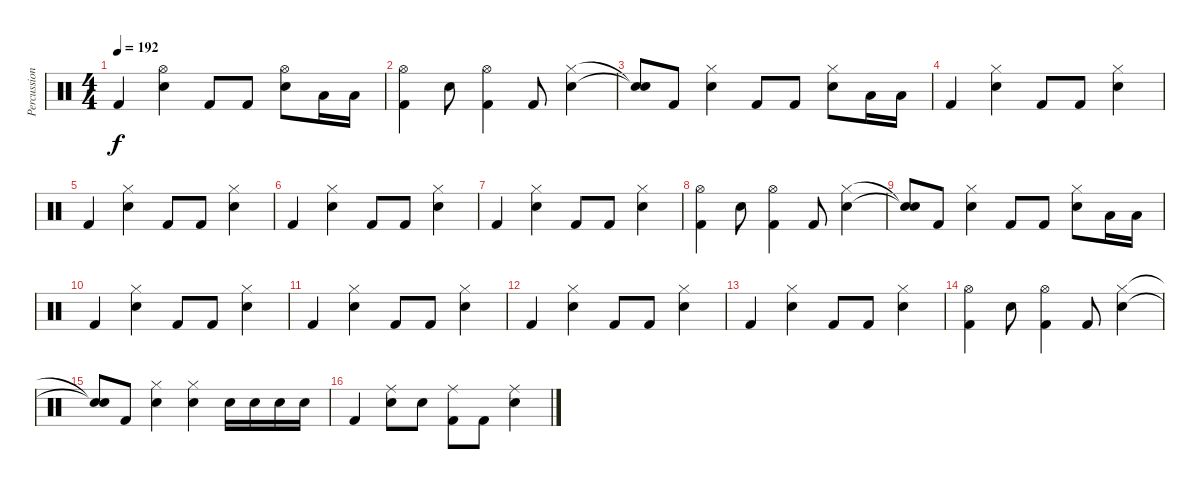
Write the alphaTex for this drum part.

\track ("Percussions" "Percussion") {instrument percussion}
\staff {score}
\articulation defaults
\ts (4 4)
\tempo 192
\clef neutral
\ks c "Kick (hit) 2".4{dy f}
("Electric Snare (hit)" "Hi-Hat (open)").4 "Kick (hit) 2".8 "Kick (hit) 2".8 ("Electric Snare (hit)" "Hi-Hat (open)").8 "Low Tom (hit)".16 "Low Tom (hit)".16 |
("Kick (hit) 2" "Hi-Hat (open)").4 "Electric Snare (hit)".8 ("Kick (hit) 2" "Hi-Hat (open)").4 "Kick (hit) 2".8 ("Electric Snare (hit)" "Hi-Hat (closed)").4 |
("Snare (hit)"{t} "Snare (hit)"{t}).8 "Kick (hit) 2".8 ("Electric Snare (hit)" "Hi-Hat (closed)").4 "Kick (hit) 2".8 "Kick (hit) 2".8 ("Electric Snare (hit)" "Hi-Hat (closed)").8 "Low Tom (hit)".16 "Low Tom (hit)".16 |
"Kick (hit) 2".4 ("Electric Snare (hit)" "Hi-Hat (closed)").4 "Kick (hit) 2".8 "Kick (hit) 2".8 ("Electric Snare (hit)" "Hi-Hat (closed)").4 |
"Kick (hit) 2".4 ("Electric Snare (hit)" "Hi-Hat (closed)").4 "Kick (hit) 2".8 "Kick (hit) 2".8 ("Electric Snare (hit)" "Hi-Hat (closed)").4 |
"Kick (hit) 2".4 ("Electric Snare (hit)" "Hi-Hat (closed)").4 "Kick (hit) 2".8 "Kick (hit) 2".8 ("Electric Snare (hit)" "Hi-Hat (closed)").4 |
"Kick (hit) 2".4 ("Electric Snare (hit)" "Hi-Hat (closed)").4 "Kick (hit) 2".8 "Kick (hit) 2".8 ("Electric Snare (hit)" "Hi-Hat (closed)").4 |
("Kick (hit) 2" "Hi-Hat (open)").4 "Electric Snare (hit)".8 ("Kick (hit) 2" "Hi-Hat (open)").4 "Kick (hit) 2".8 ("Electric Snare (hit)" "Hi-Hat (closed)").4 |
("Snare (hit)"{t} "Snare (hit)"{t}).8 "Kick (hit) 2".8 ("Electric Snare (hit)" "Hi-Hat (closed)").4 "Kick (hit) 2".8 "Kick (hit) 2".8 ("Electric Snare (hit)" "Hi-Hat (closed)").8 "Low Tom (hit)".16 "Low Tom (hit)".16 |
"Kick (hit) 2".4 ("Electric Snare (hit)" "Hi-Hat (closed)").4 "Kick (hit) 2".8 "Kick (hit) 2".8 ("Electric Snare (hit)" "Hi-Hat (closed)").4 |
"Kick (hit) 2".4 ("Electric Snare (hit)" "Hi-Hat (closed)").4 "Kick (hit) 2".8 "Kick (hit) 2".8 ("Electric Snare (hit)" "Hi-Hat (closed)").4 |
"Kick (hit) 2".4 ("Electric Snare (hit)" "Hi-Hat (closed)").4 "Kick (hit) 2".8 "Kick (hit) 2".8 ("Electric Snare (hit)" "Hi-Hat (closed)").4 |
"Kick (hit) 2".4 ("Electric Snare (hit)" "Hi-Hat (closed)").4 "Kick (hit) 2".8 "Kick (hit) 2".8 ("Electric Snare (hit)" "Hi-Hat (closed)").4 |
("Kick (hit) 2" "Hi-Hat (open)").4 "Electric Snare (hit)".8 ("Kick (hit) 2" "Hi-Hat (open)").4 "Kick (hit) 2".8 ("Electric Snare (hit)" "Hi-Hat (closed)").4 |
("Snare (hit)"{t} "Snare (hit)"{t}).8 "Kick (hit) 2".8 ("Electric Snare (hit)" "Hi-Hat (closed)").4 ("Electric Snare (hit)" "Hi-Hat (closed)").4 "Electric Snare (hit)".16 "Electric Snare (hit)".16 "Electric Snare (hit)".16 "Electric Snare (hit)".16 |
"Kick (hit) 2".4 ("Electric Snare (hit)" "Ride (middle)").8 "Electric Snare (hit)".8 ("Kick (hit) 2" "Ride (middle)").8 "Kick (hit) 2".8 ("Electric Snare (hit)" "Ride (middle)").4
